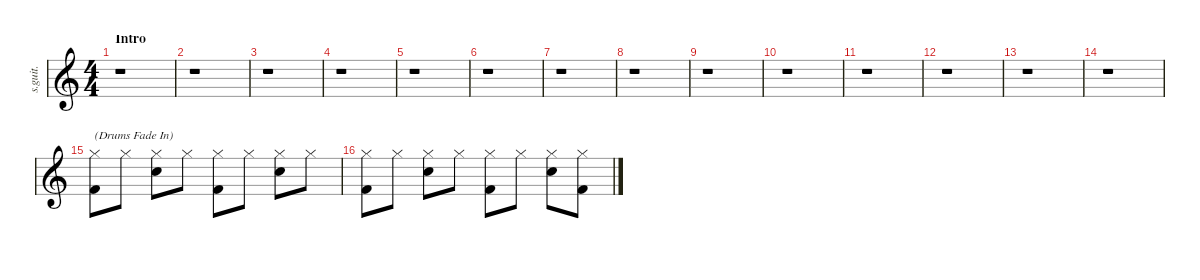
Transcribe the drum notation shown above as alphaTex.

\defaultSystemsLayout 4
\hideDynamics
\bracketExtendMode nobrackets
\track ("Drumkit" "s.guit.") {instrument percussion}
\staff {score}
\articulation defaults
\ts (4 4)
\beaming (8 2 2 2 2)
\section ("" "Intro")
\tempo (130 hide)
\clef g2
\ks c
r.1{dy ppp} |
r.1 |
r.1 |
r.1 |
r.1 |
r.1 |
r.1 |
r.1 |
r.1 |
r.1 |
r.1 |
r.1 |
r.1 |
r.1 |
("Hi-Hat (closed)" "Kick (hit) 2").8{txt "(Drums Fade In)" lyrics (0 "") lyrics (1 "") lyrics (2 "") lyrics (3 "") lyrics (4 "")} "Hi-Hat (closed)".8{lyrics (0 "") lyrics (1 "") lyrics (2 "") lyrics (3 "") lyrics (4 "")} ("Hi-Hat (closed)" "Snare (hit) 2").8{lyrics (0 "") lyrics (1 "") lyrics (2 "") lyrics (3 "") lyrics (4 "")} "Hi-Hat (closed)".8{lyrics (0 "") lyrics (1 "") lyrics (2 "") lyrics (3 "") lyrics (4 "")} ("Hi-Hat (closed)" "Kick (hit) 2").8{lyrics (0 "") lyrics (1 "") lyrics (2 "") lyrics (3 "") lyrics (4 "")} "Hi-Hat (closed)".8{lyrics (0 "") lyrics (1 "") lyrics (2 "") lyrics (3 "") lyrics (4 "")} ("Hi-Hat (closed)" "Snare (hit) 2").8{lyrics (0 "") lyrics (1 "") lyrics (2 "") lyrics (3 "") lyrics (4 "")} "Hi-Hat (closed)".8{lyrics (0 "") lyrics (1 "") lyrics (2 "") lyrics (3 "") lyrics (4 "")} |
("Hi-Hat (closed)" "Kick (hit) 2").8{lyrics (0 "") lyrics (1 "") lyrics (2 "") lyrics (3 "") lyrics (4 "")} "Hi-Hat (closed)".8{lyrics (0 "") lyrics (1 "") lyrics (2 "") lyrics (3 "") lyrics (4 "")} ("Hi-Hat (closed)" "Snare (hit) 2").8{lyrics (0 "") lyrics (1 "") lyrics (2 "") lyrics (3 "") lyrics (4 "")} "Hi-Hat (closed)".8{lyrics (0 "") lyrics (1 "") lyrics (2 "") lyrics (3 "") lyrics (4 "") dy pp} ("Hi-Hat (closed)" "Kick (hit) 2").8{lyrics (0 "") lyrics (1 "") lyrics (2 "") lyrics (3 "") lyrics (4 "")} "Hi-Hat (closed)".8{lyrics (0 "") lyrics (1 "") lyrics (2 "") lyrics (3 "") lyrics (4 "")} ("Hi-Hat (closed)" "Snare (hit) 2").8{lyrics (0 "") lyrics (1 "") lyrics (2 "") lyrics (3 "") lyrics (4 "")} ("Hi-Hat (closed)" "Kick (hit) 2").8{lyrics (0 "") lyrics (1 "") lyrics (2 "") lyrics (3 "") lyrics (4 "")}
